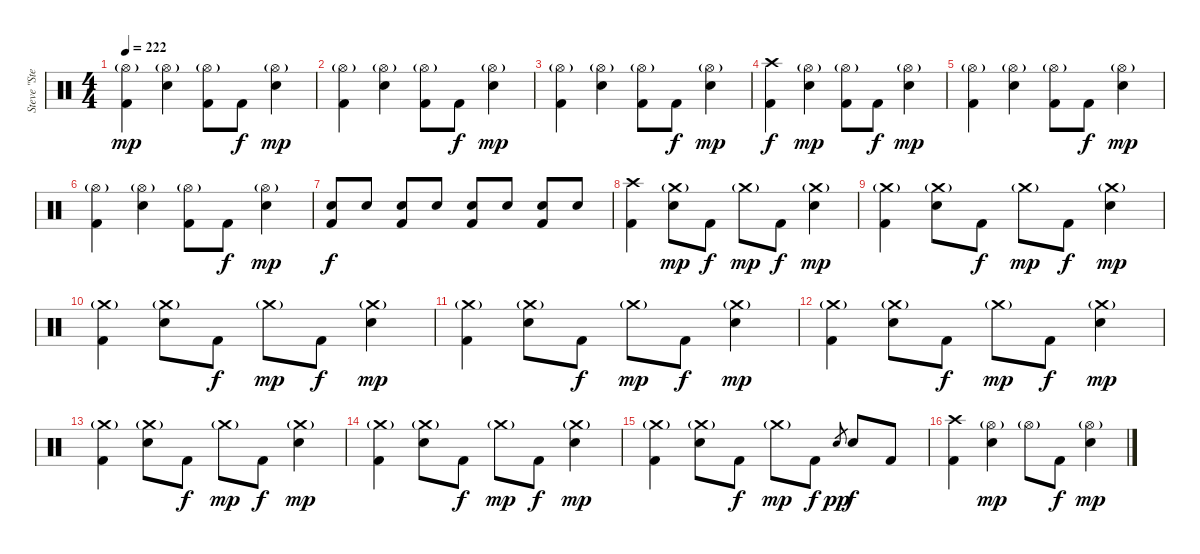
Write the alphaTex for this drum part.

\track ("Steve \"Stevo32\" Jocz " "Steve \"Ste") {instrument percussion}
\staff {score}
\articulation defaults
\ts (4 4)
\tempo 222
\clef neutral
\ks c
("Hi-Hat (open)"{g} "Kick (hit) 2").4{dy mp} ("Hi-Hat (open)"{g} "Electric Snare (hit)").4 ("Hi-Hat (open)"{g} "Kick (hit) 2").8 "Kick (hit) 2".8{dy f} ("Hi-Hat (open)"{g} "Electric Snare (hit)").4{dy mp} |
("Hi-Hat (open)"{g} "Kick (hit) 2").4 ("Hi-Hat (open)"{g} "Electric Snare (hit)").4 ("Hi-Hat (open)"{g} "Kick (hit) 2").8 "Kick (hit) 2".8{dy f} ("Hi-Hat (open)"{g} "Electric Snare (hit)").4{dy mp} |
("Hi-Hat (open)"{g} "Kick (hit) 2").4 ("Hi-Hat (open)"{g} "Electric Snare (hit)").4 ("Hi-Hat (open)"{g} "Kick (hit) 2").8 "Kick (hit) 2".8{dy f} ("Hi-Hat (open)"{g} "Electric Snare (hit)").4{dy mp} |
("Crash high (hit)" "Kick (hit) 2").4{dy f} ("Hi-Hat (open)"{g} "Electric Snare (hit)").4{dy mp} ("Hi-Hat (open)"{g} "Kick (hit) 2").8 "Kick (hit) 2".8{dy f} ("Hi-Hat (open)"{g} "Electric Snare (hit)").4{dy mp} |
("Hi-Hat (open)"{g} "Kick (hit) 2").4 ("Hi-Hat (open)"{g} "Electric Snare (hit)").4 ("Hi-Hat (open)"{g} "Kick (hit) 2").8 "Kick (hit) 2".8{dy f} ("Hi-Hat (open)"{g} "Electric Snare (hit)").4{dy mp} |
("Hi-Hat (open)"{g} "Kick (hit) 2").4 ("Hi-Hat (open)"{g} "Electric Snare (hit)").4 ("Hi-Hat (open)"{g} "Kick (hit) 2").8 "Kick (hit) 2".8{dy f} ("Hi-Hat (open)"{g} "Electric Snare (hit)").4{dy mp} |
("Electric Snare (hit)" "Kick (hit) 2").8{dy f} "Electric Snare (hit)".8 ("Electric Snare (hit)" "Kick (hit) 2").8 "Electric Snare (hit)".8 ("Electric Snare (hit)" "Kick (hit) 2").8 "Electric Snare (hit)".8 ("Electric Snare (hit)" "Kick (hit) 2").8 "Electric Snare (hit)".8 |
("Crash high (hit)" "Kick (hit) 2").4 ("Crash medium (hit)"{g} "Electric Snare (hit)").8{dy mp} "Kick (hit) 2".8{dy f} "Crash medium (hit)"{g}.8{dy mp} "Kick (hit) 2".8{dy f} ("Crash medium (hit)"{g} "Electric Snare (hit)").4{dy mp} |
("Crash medium (hit)"{g} "Kick (hit) 2").4 ("Crash medium (hit)"{g} "Electric Snare (hit)").8 "Kick (hit) 2".8{dy f} "Crash medium (hit)"{g}.8{dy mp} "Kick (hit) 2".8{dy f} ("Crash medium (hit)"{g} "Electric Snare (hit)").4{dy mp} |
("Crash medium (hit)"{g} "Kick (hit) 2").4 ("Crash medium (hit)"{g} "Electric Snare (hit)").8 "Kick (hit) 2".8{dy f} "Crash medium (hit)"{g}.8{dy mp} "Kick (hit) 2".8{dy f} ("Crash medium (hit)"{g} "Electric Snare (hit)").4{dy mp} |
("Crash medium (hit)"{g} "Kick (hit) 2").4 ("Crash medium (hit)"{g} "Electric Snare (hit)").8 "Kick (hit) 2".8{dy f} "Crash medium (hit)"{g}.8{dy mp} "Kick (hit) 2".8{dy f} ("Crash medium (hit)"{g} "Electric Snare (hit)").4{dy mp} |
("Crash medium (hit)"{g} "Kick (hit) 2").4 ("Crash medium (hit)"{g} "Electric Snare (hit)").8 "Kick (hit) 2".8{dy f} "Crash medium (hit)"{g}.8{dy mp} "Kick (hit) 2".8{dy f} ("Crash medium (hit)"{g} "Electric Snare (hit)").4{dy mp} |
("Crash medium (hit)"{g} "Kick (hit) 2").4 ("Crash medium (hit)"{g} "Electric Snare (hit)").8 "Kick (hit) 2".8{dy f} "Crash medium (hit)"{g}.8{dy mp} "Kick (hit) 2".8{dy f} ("Crash medium (hit)"{g} "Electric Snare (hit)").4{dy mp} |
("Crash medium (hit)"{g} "Kick (hit) 2").4 ("Crash medium (hit)"{g} "Electric Snare (hit)").8 "Kick (hit) 2".8{dy f} "Crash medium (hit)"{g}.8{dy mp} "Kick (hit) 2".8{dy f} ("Crash medium (hit)"{g} "Electric Snare (hit)").4{dy mp} |
("Crash medium (hit)"{g} "Kick (hit) 2").4 ("Crash medium (hit)"{g} "Electric Snare (hit)").8 "Kick (hit) 2".8{dy f} "Crash medium (hit)"{g}.8{dy mp} "Kick (hit) 2".8{dy f} "Electric Snare (hit)".8{gr dy pp} "Electric Snare (hit)".8{dy f} "Kick (hit) 2".8 |
("Crash high (hit)" "Kick (hit) 2").4 ("Hi-Hat (open)"{g} "Electric Snare (hit)").4{dy mp} "Hi-Hat (open)"{g}.8 "Kick (hit) 2".8{dy f} ("Hi-Hat (open)"{g} "Electric Snare (hit)").4{dy mp}
